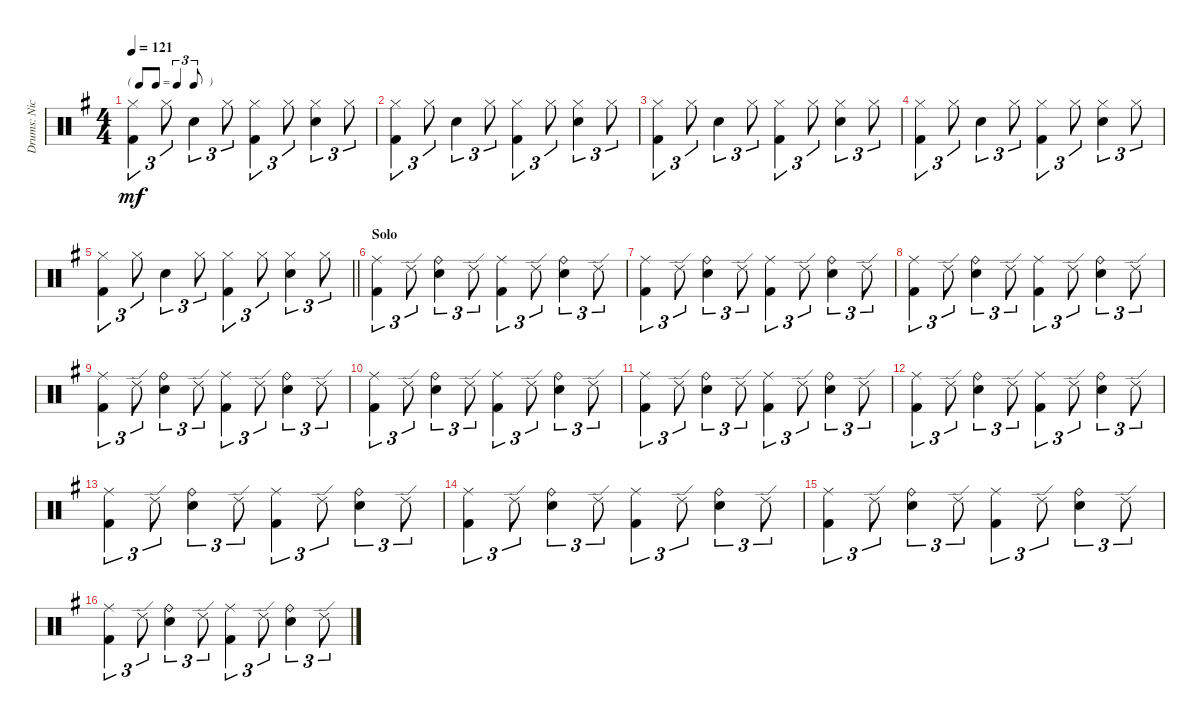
\track ("Drums: Nick" "Drums: Nic") {instrument percussion}
\staff {score}
\articulation defaults
\ts (4 4)
\tf triplet8th
\tempo 121
\clef neutral
\ks g
("Hi-Hat (closed)" "Kick (hit) 2").4{tu (3 2) dy mf} "Hi-Hat (closed)".8{tu (3 2)} "Electric Snare (hit)".4{tu (3 2)} "Hi-Hat (closed)".8{tu (3 2)} ("Hi-Hat (closed)" "Kick (hit) 2").4{tu (3 2)} "Hi-Hat (closed)".8{tu (3 2)} ("Hi-Hat (closed)" "Electric Snare (hit)").4{tu (3 2)} "Hi-Hat (closed)".8{tu (3 2)} |
("Hi-Hat (closed)" "Kick (hit) 2").4{tu (3 2)} "Hi-Hat (closed)".8{tu (3 2)} "Electric Snare (hit)".4{tu (3 2)} "Hi-Hat (closed)".8{tu (3 2)} ("Hi-Hat (closed)" "Kick (hit) 2").4{tu (3 2)} "Hi-Hat (closed)".8{tu (3 2)} ("Hi-Hat (closed)" "Electric Snare (hit)").4{tu (3 2)} "Hi-Hat (closed)".8{tu (3 2)} |
("Hi-Hat (closed)" "Kick (hit) 2").4{tu (3 2)} "Hi-Hat (closed)".8{tu (3 2)} "Electric Snare (hit)".4{tu (3 2)} "Hi-Hat (closed)".8{tu (3 2)} ("Hi-Hat (closed)" "Kick (hit) 2").4{tu (3 2)} "Hi-Hat (closed)".8{tu (3 2)} ("Hi-Hat (closed)" "Electric Snare (hit)").4{tu (3 2)} "Hi-Hat (closed)".8{tu (3 2)} |
("Hi-Hat (closed)" "Kick (hit) 2").4{tu (3 2)} "Hi-Hat (closed)".8{tu (3 2)} "Electric Snare (hit)".4{tu (3 2)} "Hi-Hat (closed)".8{tu (3 2)} ("Hi-Hat (closed)" "Kick (hit) 2").4{tu (3 2)} "Hi-Hat (closed)".8{tu (3 2)} ("Hi-Hat (closed)" "Electric Snare (hit)").4{tu (3 2)} "Hi-Hat (closed)".8{tu (3 2)} |
\barLineRight lightlight
("Hi-Hat (closed)" "Kick (hit) 2").4{tu (3 2)} "Hi-Hat (closed)".8{tu (3 2)} "Electric Snare (hit)".4{tu (3 2)} "Hi-Hat (closed)".8{tu (3 2)} ("Hi-Hat (closed)" "Kick (hit) 2").4{tu (3 2)} "Hi-Hat (closed)".8{tu (3 2)} ("Hi-Hat (closed)" "Electric Snare (hit)").4{tu (3 2)} "Hi-Hat (closed)".8{tu (3 2)} |
\section ("" "Solo")
("Ride (middle)" "Kick (hit) 2").4{tu (3 2)} "Ride (edge) 2".8{tu (3 2)} ("Ride (bell)" "Electric Snare (hit)").4{tu (3 2)} "Ride (edge) 2".8{tu (3 2)} ("Ride (middle)" "Kick (hit) 2").4{tu (3 2)} "Ride (edge) 2".8{tu (3 2)} ("Ride (bell)" "Electric Snare (hit)").4{tu (3 2)} "Ride (edge) 2".8{tu (3 2)} |
("Ride (middle)" "Kick (hit) 2").4{tu (3 2)} "Ride (edge) 2".8{tu (3 2)} ("Ride (bell)" "Electric Snare (hit)").4{tu (3 2)} "Ride (edge) 2".8{tu (3 2)} ("Ride (middle)" "Kick (hit) 2").4{tu (3 2)} "Ride (edge) 2".8{tu (3 2)} ("Ride (bell)" "Electric Snare (hit)").4{tu (3 2)} "Ride (edge) 2".8{tu (3 2)} |
("Ride (middle)" "Kick (hit) 2").4{tu (3 2)} "Ride (edge) 2".8{tu (3 2)} ("Ride (bell)" "Electric Snare (hit)").4{tu (3 2)} "Ride (edge) 2".8{tu (3 2)} ("Ride (middle)" "Kick (hit) 2").4{tu (3 2)} "Ride (edge) 2".8{tu (3 2)} ("Ride (bell)" "Electric Snare (hit)").4{tu (3 2)} "Ride (edge) 2".8{tu (3 2)} |
("Ride (middle)" "Kick (hit) 2").4{tu (3 2)} "Ride (edge) 2".8{tu (3 2)} ("Ride (bell)" "Electric Snare (hit)").4{tu (3 2)} "Ride (edge) 2".8{tu (3 2)} ("Ride (middle)" "Kick (hit) 2").4{tu (3 2)} "Ride (edge) 2".8{tu (3 2)} ("Ride (bell)" "Electric Snare (hit)").4{tu (3 2)} "Ride (edge) 2".8{tu (3 2)} |
("Ride (middle)" "Kick (hit) 2").4{tu (3 2)} "Ride (edge) 2".8{tu (3 2)} ("Ride (bell)" "Electric Snare (hit)").4{tu (3 2)} "Ride (edge) 2".8{tu (3 2)} ("Ride (middle)" "Kick (hit) 2").4{tu (3 2)} "Ride (edge) 2".8{tu (3 2)} ("Ride (bell)" "Electric Snare (hit)").4{tu (3 2)} "Ride (edge) 2".8{tu (3 2)} |
("Ride (middle)" "Kick (hit) 2").4{tu (3 2)} "Ride (edge) 2".8{tu (3 2)} ("Ride (bell)" "Electric Snare (hit)").4{tu (3 2)} "Ride (edge) 2".8{tu (3 2)} ("Ride (middle)" "Kick (hit) 2").4{tu (3 2)} "Ride (edge) 2".8{tu (3 2)} ("Ride (bell)" "Electric Snare (hit)").4{tu (3 2)} "Ride (edge) 2".8{tu (3 2)} |
("Ride (middle)" "Kick (hit) 2").4{tu (3 2)} "Ride (edge) 2".8{tu (3 2)} ("Ride (bell)" "Electric Snare (hit)").4{tu (3 2)} "Ride (edge) 2".8{tu (3 2)} ("Ride (middle)" "Kick (hit) 2").4{tu (3 2)} "Ride (edge) 2".8{tu (3 2)} ("Ride (bell)" "Electric Snare (hit)").4{tu (3 2)} "Ride (edge) 2".8{tu (3 2)} |
("Ride (middle)" "Kick (hit) 2").4{tu (3 2)} "Ride (edge) 2".8{tu (3 2)} ("Ride (bell)" "Electric Snare (hit)").4{tu (3 2)} "Ride (edge) 2".8{tu (3 2)} ("Ride (middle)" "Kick (hit) 2").4{tu (3 2)} "Ride (edge) 2".8{tu (3 2)} ("Ride (bell)" "Electric Snare (hit)").4{tu (3 2)} "Ride (edge) 2".8{tu (3 2)} |
("Ride (middle)" "Kick (hit) 2").4{tu (3 2)} "Ride (edge) 2".8{tu (3 2)} ("Ride (bell)" "Electric Snare (hit)").4{tu (3 2)} "Ride (edge) 2".8{tu (3 2)} ("Ride (middle)" "Kick (hit) 2").4{tu (3 2)} "Ride (edge) 2".8{tu (3 2)} ("Ride (bell)" "Electric Snare (hit)").4{tu (3 2)} "Ride (edge) 2".8{tu (3 2)} |
("Ride (middle)" "Kick (hit) 2").4{tu (3 2)} "Ride (edge) 2".8{tu (3 2)} ("Ride (bell)" "Electric Snare (hit)").4{tu (3 2)} "Ride (edge) 2".8{tu (3 2)} ("Ride (middle)" "Kick (hit) 2").4{tu (3 2)} "Ride (edge) 2".8{tu (3 2)} ("Ride (bell)" "Electric Snare (hit)").4{tu (3 2)} "Ride (edge) 2".8{tu (3 2)} |
("Ride (middle)" "Kick (hit) 2").4{tu (3 2)} "Ride (edge) 2".8{tu (3 2)} ("Ride (bell)" "Electric Snare (hit)").4{tu (3 2)} "Ride (edge) 2".8{tu (3 2)} ("Ride (middle)" "Kick (hit) 2").4{tu (3 2)} "Ride (edge) 2".8{tu (3 2)} ("Ride (bell)" "Electric Snare (hit)").4{tu (3 2)} "Ride (edge) 2".8{tu (3 2)}
